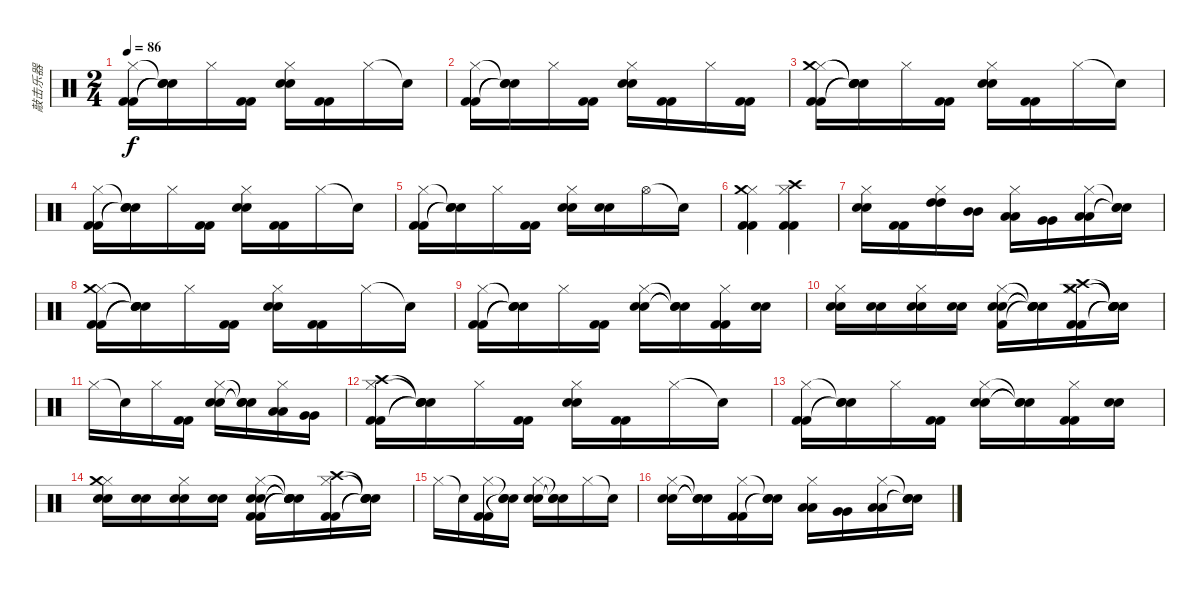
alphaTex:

\track ("敲击乐器" "敲击乐器") {instrument percussion}
\staff {score}
\articulation defaults
\ts (2 4)
\tempo 86
\clef neutral
\ks c
("Hi-Hat (closed)" "Kick (hit) 2" "Kick (hit) 2").16{dy f} ("Snare (hit)"{t} "Snare (hit)"{t} "Snare (hit)"{t}).16 "Hi-Hat (closed)".16 ("Kick (hit) 2" "Kick (hit) 2").16 ("Hi-Hat (closed)" "Electric Snare (hit)" "Electric Snare (hit)").16 ("Kick (hit) 2" "Kick (hit) 2").16 "Hi-Hat (closed)".16 "Snare (hit)"{t}.16 |
("Hi-Hat (closed)" "Kick (hit) 2" "Kick (hit) 2").16 ("Snare (hit)"{t} "Snare (hit)"{t} "Snare (hit)"{t}).16 "Hi-Hat (closed)".16 ("Kick (hit) 2" "Kick (hit) 2").16 ("Hi-Hat (closed)" "Electric Snare (hit)" "Electric Snare (hit)").16 ("Kick (hit) 2" "Kick (hit) 2").16 "Hi-Hat (closed)".16 ("Kick (hit) 2" "Kick (hit) 2").16 |
("Hi-Hat (closed)" "Crash medium (hit)" "Kick (hit) 2" "Kick (hit) 2").16 ("Snare (hit)"{t} "Snare (hit)"{t} "Snare (hit)"{t} "Snare (hit)"{t}).16 "Hi-Hat (closed)".16 ("Kick (hit) 2" "Kick (hit) 2").16 ("Hi-Hat (closed)" "Electric Snare (hit)" "Electric Snare (hit)").16 ("Kick (hit) 2" "Kick (hit) 2").16 "Hi-Hat (closed)".16 "Snare (hit)"{t}.16 |
("Hi-Hat (closed)" "Kick (hit) 2" "Kick (hit) 2").16 ("Snare (hit)"{t} "Snare (hit)"{t} "Snare (hit)"{t}).16 "Hi-Hat (closed)".16 ("Kick (hit) 2" "Kick (hit) 2").16 ("Hi-Hat (closed)" "Electric Snare (hit)" "Electric Snare (hit)").16 ("Kick (hit) 2" "Kick (hit) 2").16 "Hi-Hat (closed)".16 "Snare (hit)"{t}.16 |
("Hi-Hat (closed)" "Kick (hit) 2" "Kick (hit) 2").16 ("Snare (hit)"{t} "Snare (hit)"{t} "Snare (hit)"{t}).16 "Hi-Hat (closed)".16 ("Kick (hit) 2" "Kick (hit) 2").16 ("Hi-Hat (closed)" "Electric Snare (hit)" "Electric Snare (hit)").16 ("Electric Snare (hit)" "Electric Snare (hit)").16 "Hi-Hat (open)".16 "Snare (hit)"{t}.16 |
("Hi-Hat (closed)" "Crash medium (hit)" "Kick (hit) 2" "Kick (hit) 2").4 ("Hi-Hat (closed)" "Crash high (hit)" "Kick (hit) 2" "Kick (hit) 2").4 |
("Hi-Hat (closed)" "Electric Snare (hit)" "Electric Snare (hit)").16 ("Kick (hit) 2" "Kick (hit) 2").16 ("Hi-Hat (closed)" "High Tom (hit)" "High Tom (hit)").16 ("Mid Tom (hit)" "Mid Tom (hit)").16 ("Hi-Hat (closed)" "Low Tom (hit)" "Low Tom (hit)").16 ("Very Low Tom (hit)" "Very Low Tom (hit)").16 ("Hi-Hat (closed)" "Low Floor Tom (hit)" "Low Floor Tom (hit)").16 ("Snare (hit)"{t} "Snare (hit)"{t} "Snare (hit)"{t}).16 |
("Hi-Hat (closed)" "Crash medium (hit)" "Kick (hit) 2" "Kick (hit) 2").16 ("Snare (hit)"{t} "Snare (hit)"{t} "Snare (hit)"{t} "Snare (hit)"{t}).16 "Hi-Hat (closed)".16 ("Kick (hit) 2" "Kick (hit) 2").16 ("Hi-Hat (closed)" "Electric Snare (hit)" "Electric Snare (hit)").16 ("Kick (hit) 2" "Kick (hit) 2").16 "Hi-Hat (closed)".16 "Snare (hit)"{t}.16 |
("Hi-Hat (closed)" "Kick (hit) 2" "Kick (hit) 2").16 ("Snare (hit)"{t} "Snare (hit)"{t} "Snare (hit)"{t}).16 "Hi-Hat (closed)".16 ("Kick (hit) 2" "Kick (hit) 2").16 ("Hi-Hat (closed)" "Electric Snare (hit)" "Electric Snare (hit)").16 ("Snare (hit)"{t} "Snare (hit)"{t} "Snare (hit)"{t}).16 ("Hi-Hat (closed)" "Kick (hit) 2" "Kick (hit) 2").16 ("Snare (hit) 2" "Snare (hit) 2").16 |
("Hi-Hat (closed)" "Snare (hit) 2" "Snare (hit) 2").16 ("Snare (hit) 2" "Snare (hit) 2").16 ("Hi-Hat (closed)" "Snare (hit) 2" "Snare (hit) 2").16 ("Snare (hit) 2" "Snare (hit) 2").16 ("Hi-Hat (closed)" "Snare (hit) 2" "Snare (hit) 2" "Kick (hit) 2").16 ("Snare (hit)"{t} "Snare (hit)"{t} "Snare (hit)"{t} "Snare (hit)"{t}).16 ("Hi-Hat (closed)" "Crash medium (hit)" "Crash high (hit)" "Kick (hit) 2" "Kick (hit) 2").16 ("Snare (hit)"{t} "Snare (hit)"{t} "Snare (hit)"{t} "Snare (hit)"{t} "Snare (hit)"{t}).16 |
"Hi-Hat (closed)".16 "Snare (hit)"{t}.16 "Hi-Hat (closed)".16 ("Kick (hit) 2" "Kick (hit) 2").16 ("Hi-Hat (closed)" "Electric Snare (hit)" "Electric Snare (hit)").16 ("Snare (hit)"{t} "Snare (hit)"{t} "Snare (hit)"{t}).16 ("Hi-Hat (closed)" "Low Tom (hit)" "Low Tom (hit)").16 ("Very Low Tom (hit)" "Very Low Tom (hit)").16 |
("Hi-Hat (closed)" "Crash high (hit)" "Kick (hit) 2" "Kick (hit) 2").16 ("Snare (hit)"{t} "Snare (hit)"{t} "Snare (hit)"{t} "Snare (hit)"{t}).16 "Hi-Hat (closed)".16 ("Kick (hit) 2" "Kick (hit) 2").16 ("Hi-Hat (closed)" "Electric Snare (hit)" "Electric Snare (hit)").16 ("Kick (hit) 2" "Kick (hit) 2").16 "Hi-Hat (closed)".16 "Snare (hit)"{t}.16 |
("Hi-Hat (closed)" "Kick (hit) 2" "Kick (hit) 2").16 ("Snare (hit)"{t} "Snare (hit)"{t} "Snare (hit)"{t}).16 "Hi-Hat (closed)".16 ("Kick (hit) 2" "Kick (hit) 2").16 ("Hi-Hat (closed)" "Electric Snare (hit)" "Electric Snare (hit)").16 ("Snare (hit)"{t} "Snare (hit)"{t} "Snare (hit)"{t}).16 ("Hi-Hat (closed)" "Kick (hit) 2" "Kick (hit) 2").16 ("Snare (hit) 2" "Snare (hit) 2").16 |
("Hi-Hat (closed)" "Crash medium (hit)" "Snare (hit) 2" "Snare (hit) 2").16 ("Snare (hit) 2" "Snare (hit) 2").16 ("Hi-Hat (closed)" "Snare (hit) 2" "Snare (hit) 2").16 ("Snare (hit) 2" "Snare (hit) 2").16 ("Hi-Hat (closed)" "Snare (hit) 2" "Snare (hit) 2" "Kick (hit) 2" "Kick (hit) 2").16 ("Snare (hit)"{t} "Snare (hit)"{t} "Snare (hit)"{t} "Snare (hit)"{t} "Snare (hit)"{t}).16 ("Hi-Hat (closed)" "Crash high (hit)" "Kick (hit) 2" "Kick (hit) 2").16 ("Snare (hit)"{t} "Snare (hit)"{t} "Snare (hit)"{t} "Snare (hit)"{t}).16 |
"Hi-Hat (closed)".16 "Snare (hit)"{t}.16 ("Hi-Hat (closed)" "Kick (hit) 2" "Kick (hit) 2").16 ("Snare (hit)"{t} "Snare (hit)"{t} "Snare (hit)"{t}).16 ("Hi-Hat (closed)" "Electric Snare (hit)" "Electric Snare (hit)").16 ("Snare (hit)"{t} "Snare (hit)"{t} "Snare (hit)"{t}).16 "Hi-Hat (closed)".16 "Snare (hit)"{t}.16 |
("Hi-Hat (closed)" "Electric Snare (hit)" "Electric Snare (hit)").16 ("Snare (hit)"{t} "Snare (hit)"{t} "Snare (hit)"{t}).16 ("Hi-Hat (closed)" "Kick (hit) 2" "Kick (hit) 2").16 ("Snare (hit)"{t} "Snare (hit)"{t} "Snare (hit)"{t}).16 ("Hi-Hat (closed)" "Low Tom (hit)" "Low Tom (hit)").16 ("Very Low Tom (hit)" "Very Low Tom (hit)").16 ("Hi-Hat (closed)" "Low Floor Tom (hit)" "Low Floor Tom (hit)").16 ("Snare (hit)"{t} "Snare (hit)"{t} "Snare (hit)"{t}).16
